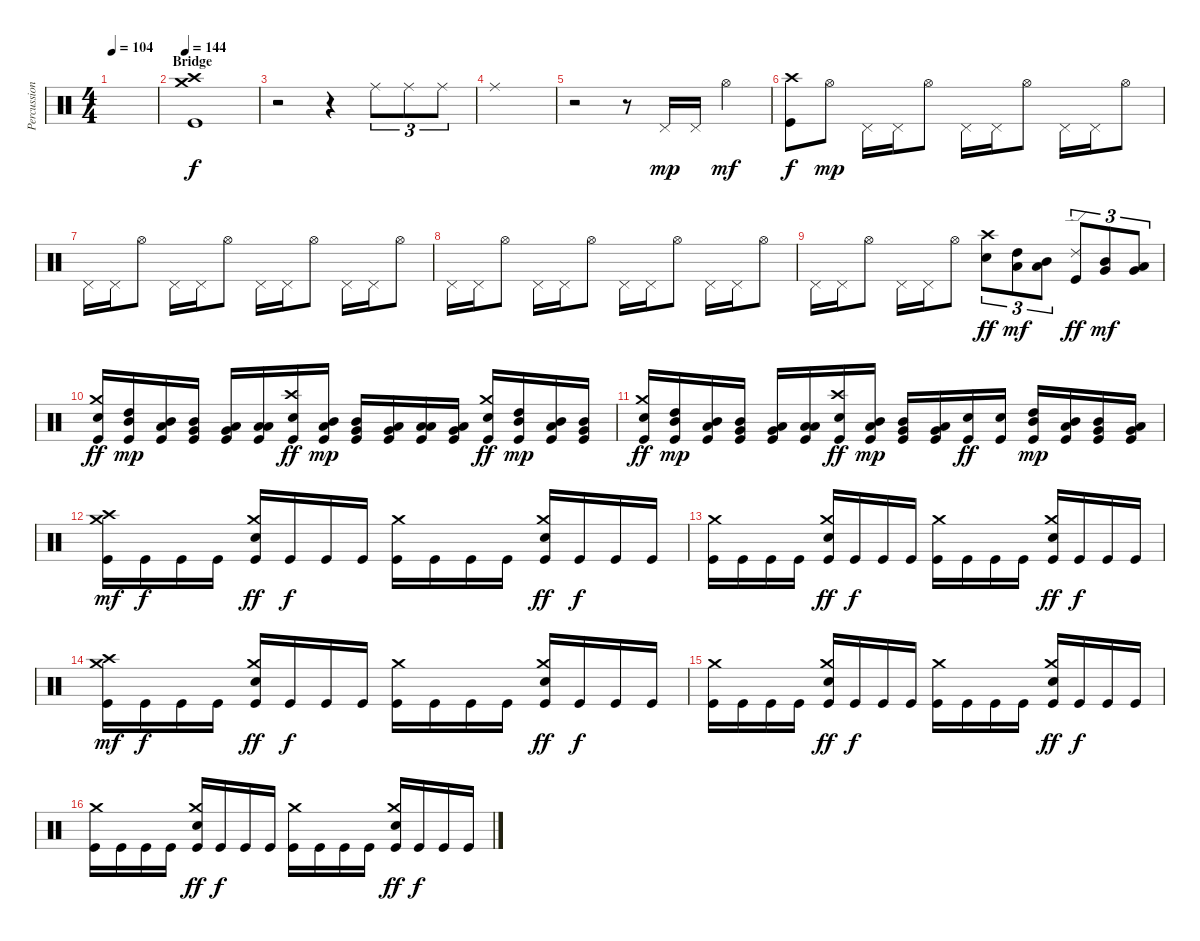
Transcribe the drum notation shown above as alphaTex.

\track ("Percussions" "Percussion") {instrument percussion}
\staff {score}
\articulation defaults
\ts (4 4)
\tempo 104
\clef neutral
\ks c
|
\section ("" "Bridge")
\tempo 144
("Kick (hit)" "Crash high (hit)" "Crash medium (hit)").1 |
r.2 r.4 "Ride (middle)".8{tu (3 2)} "Ride (middle)".8{tu (3 2)} "Ride (middle)".8{tu (3 2)} |
"Ride (middle)".1 |
r.2 r.8 "Pedal Hi-Hat (hit)".16{dy mp} "Pedal Hi-Hat (hit)".16 "Hi-Hat (open)".4{dy mf} |
("Kick (hit)" "Crash high (hit)").8{dy f} "Hi-Hat (open)".8{dy mp} "Pedal Hi-Hat (hit)".16 "Pedal Hi-Hat (hit)".16 "Hi-Hat (open)".8 "Pedal Hi-Hat (hit)".16 "Pedal Hi-Hat (hit)".16 "Hi-Hat (open)".8 "Pedal Hi-Hat (hit)".16 "Pedal Hi-Hat (hit)".16 "Hi-Hat (open)".8 |
"Pedal Hi-Hat (hit)".16 "Pedal Hi-Hat (hit)".16 "Hi-Hat (open)".8 "Pedal Hi-Hat (hit)".16 "Pedal Hi-Hat (hit)".16 "Hi-Hat (open)".8 "Pedal Hi-Hat (hit)".16 "Pedal Hi-Hat (hit)".16 "Hi-Hat (open)".8 "Pedal Hi-Hat (hit)".16 "Pedal Hi-Hat (hit)".16 "Hi-Hat (open)".8 |
"Pedal Hi-Hat (hit)".16 "Pedal Hi-Hat (hit)".16 "Hi-Hat (open)".8 "Pedal Hi-Hat (hit)".16 "Pedal Hi-Hat (hit)".16 "Hi-Hat (open)".8 "Pedal Hi-Hat (hit)".16 "Pedal Hi-Hat (hit)".16 "Hi-Hat (open)".8 "Pedal Hi-Hat (hit)".16 "Pedal Hi-Hat (hit)".16 "Hi-Hat (open)".8 |
"Pedal Hi-Hat (hit)".16 "Pedal Hi-Hat (hit)".16 "Hi-Hat (open)".8 "Pedal Hi-Hat (hit)".16 "Pedal Hi-Hat (hit)".16 "Hi-Hat (open)".8 ("Electric Snare (hit)" "Crash high (hit)").8{tu (3 2) dy ff} ("Low Tom (hit)" "High Tom (hit)").8{tu (3 2) dy mf} ("Low Tom (hit)" "Mid Tom (hit)").8{tu (3 2)} ("Kick (hit)" "Ride (edge) 2").8{tu (3 2) dy ff} ("Very Low Tom (hit)" "Mid Tom (hit)").8{tu (3 2) dy mf} ("Very Low Tom (hit)" "Low Tom (hit)").8{tu (3 2)} |
("Kick (hit)" "Electric Snare (hit)" "Crash medium (hit)").16{dy ff} ("Kick (hit)" "Mid Tom (hit)" "High Tom (hit)").16{dy mp} ("Kick (hit)" "Low Tom (hit)" "Mid Tom (hit)").16 ("Kick (hit)" "Very Low Tom (hit)" "Mid Tom (hit)").16 ("Kick (hit)" "Very Low Tom (hit)" "Low Tom (hit)").16 ("Kick (hit)" "Low Floor Tom (hit)" "Low Tom (hit)").16 ("Kick (hit)" "Electric Snare (hit)" "Crash high (hit)").16{dy ff} ("Kick (hit)" "Low Tom (hit)" "Mid Tom (hit)").16{dy mp} ("Kick (hit)" "Very Low Tom (hit)" "Mid Tom (hit)").16 ("Kick (hit)" "Very Low Tom (hit)" "Low Tom (hit)").16 ("Kick (hit)" "Low Floor Tom (hit)" "Low Tom (hit)").16 ("Kick (hit)" "Low Floor Tom (hit)" "Very Low Tom (hit)").16 ("Kick (hit)" "Electric Snare (hit)" "Crash medium (hit)").16{dy ff} ("Kick (hit)" "Mid Tom (hit)" "High Tom (hit)").16{dy mp} ("Kick (hit)" "Low Tom (hit)" "Mid Tom (hit)").16 ("Kick (hit)" "Very Low Tom (hit)" "Mid Tom (hit)").16 |
("Kick (hit)" "Electric Snare (hit)" "Crash medium (hit)").16{dy ff} ("Kick (hit)" "Mid Tom (hit)" "High Tom (hit)").16{dy mp} ("Kick (hit)" "Low Tom (hit)" "Mid Tom (hit)").16 ("Kick (hit)" "Very Low Tom (hit)" "Mid Tom (hit)").16 ("Kick (hit)" "Very Low Tom (hit)" "Low Tom (hit)").16 ("Kick (hit)" "Low Floor Tom (hit)" "Low Tom (hit)").16 ("Kick (hit)" "Electric Snare (hit)" "Crash high (hit)").16{dy ff} ("Kick (hit)" "Low Tom (hit)" "Mid Tom (hit)").16{dy mp} ("Kick (hit)" "Very Low Tom (hit)" "Mid Tom (hit)").16 ("Kick (hit)" "Very Low Tom (hit)" "Low Tom (hit)").16 ("Kick (hit)" "Electric Snare (hit)").16{dy ff} ("Kick (hit)" "Electric Snare (hit)").16 ("Kick (hit)" "Mid Tom (hit)" "High Tom (hit)").16{dy mp} ("Kick (hit)" "Low Tom (hit)" "Mid Tom (hit)").16 ("Kick (hit)" "Very Low Tom (hit)" "Mid Tom (hit)").16 ("Kick (hit)" "Very Low Tom (hit)" "Low Tom (hit)").16 |
("Kick (hit)" "Crash medium (hit)" "Crash high (hit)").16{dy mf} "Kick (hit)".16{dy f} "Kick (hit)".16 "Kick (hit)".16 ("Kick (hit)" "Electric Snare (hit)" "Crash medium (hit)").16{dy ff} "Kick (hit)".16{dy f} "Kick (hit)".16 "Kick (hit)".16 ("Kick (hit)" "Crash medium (hit)").16 "Kick (hit)".16 "Kick (hit)".16 "Kick (hit)".16 ("Kick (hit)" "Electric Snare (hit)" "Crash medium (hit)").16{dy ff} "Kick (hit)".16{dy f} "Kick (hit)".16 "Kick (hit)".16 |
("Kick (hit)" "Crash medium (hit)").16 "Kick (hit)".16 "Kick (hit)".16 "Kick (hit)".16 ("Kick (hit)" "Electric Snare (hit)" "Crash medium (hit)").16{dy ff} "Kick (hit)".16{dy f} "Kick (hit)".16 "Kick (hit)".16 ("Kick (hit)" "Crash medium (hit)").16 "Kick (hit)".16 "Kick (hit)".16 "Kick (hit)".16 ("Kick (hit)" "Electric Snare (hit)" "Crash medium (hit)").16{dy ff} "Kick (hit)".16{dy f} "Kick (hit)".16 "Kick (hit)".16 |
("Kick (hit)" "Crash medium (hit)" "Crash high (hit)").16{dy mf} "Kick (hit)".16{dy f} "Kick (hit)".16 "Kick (hit)".16 ("Kick (hit)" "Electric Snare (hit)" "Crash medium (hit)").16{dy ff} "Kick (hit)".16{dy f} "Kick (hit)".16 "Kick (hit)".16 ("Kick (hit)" "Crash medium (hit)").16 "Kick (hit)".16 "Kick (hit)".16 "Kick (hit)".16 ("Kick (hit)" "Electric Snare (hit)" "Crash medium (hit)").16{dy ff} "Kick (hit)".16{dy f} "Kick (hit)".16 "Kick (hit)".16 |
("Kick (hit)" "Crash medium (hit)").16 "Kick (hit)".16 "Kick (hit)".16 "Kick (hit)".16 ("Kick (hit)" "Electric Snare (hit)" "Crash medium (hit)").16{dy ff} "Kick (hit)".16{dy f} "Kick (hit)".16 "Kick (hit)".16 ("Kick (hit)" "Crash medium (hit)").16 "Kick (hit)".16 "Kick (hit)".16 "Kick (hit)".16 ("Kick (hit)" "Electric Snare (hit)" "Crash medium (hit)").16{dy ff} "Kick (hit)".16{dy f} "Kick (hit)".16 "Kick (hit)".16 |
("Kick (hit)" "Crash medium (hit)").16 "Kick (hit)".16 "Kick (hit)".16 "Kick (hit)".16 ("Kick (hit)" "Electric Snare (hit)" "Crash medium (hit)").16{dy ff} "Kick (hit)".16{dy f} "Kick (hit)".16 "Kick (hit)".16 ("Kick (hit)" "Crash medium (hit)").16 "Kick (hit)".16 "Kick (hit)".16 "Kick (hit)".16 ("Kick (hit)" "Electric Snare (hit)" "Crash medium (hit)").16{dy ff} "Kick (hit)".16{dy f} "Kick (hit)".16 "Kick (hit)".16
